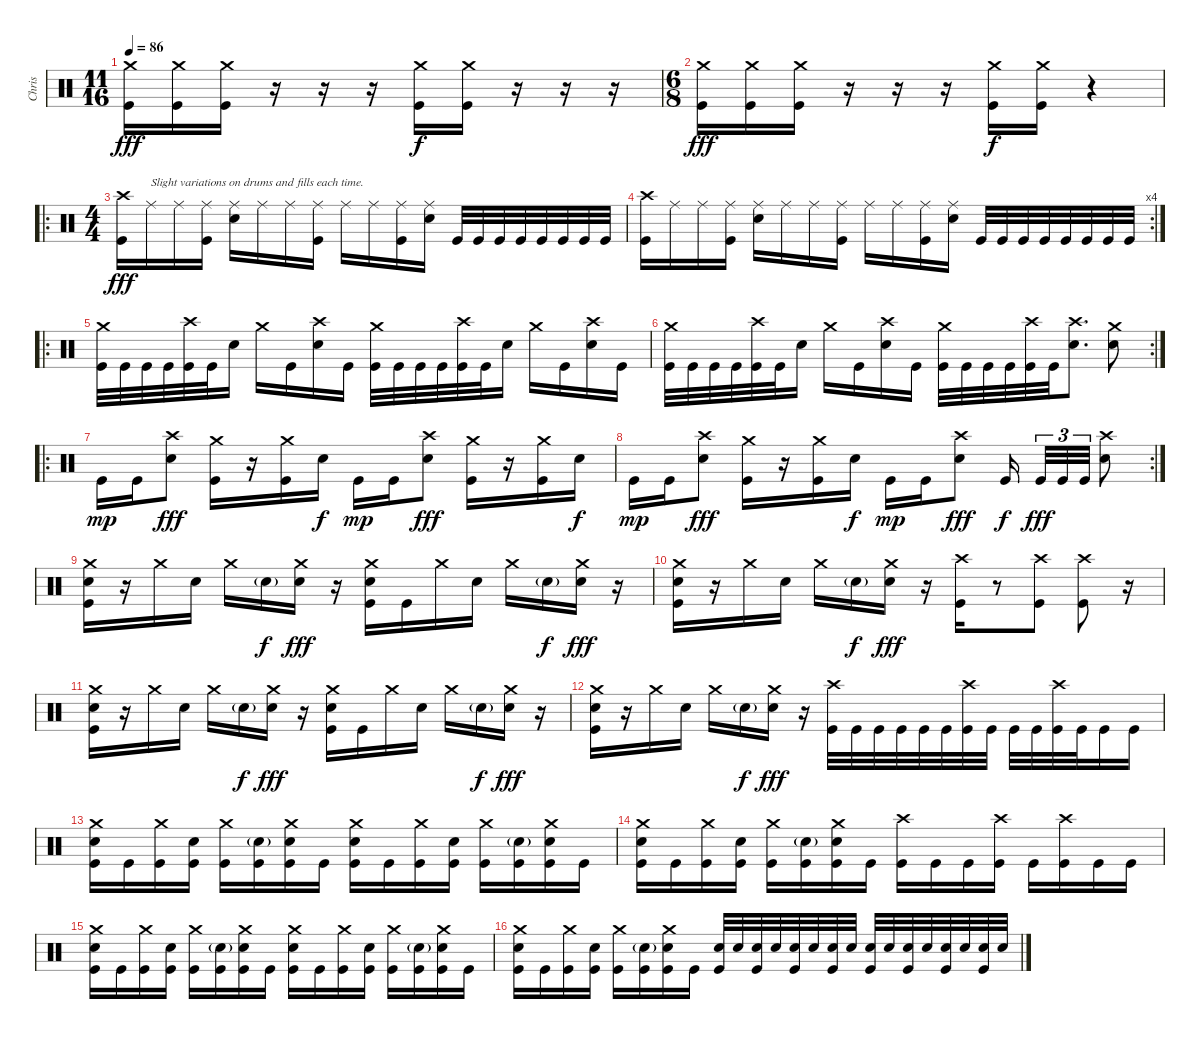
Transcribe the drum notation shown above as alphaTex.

\track ("Chris" "Chris") {instrument percussion}
\staff {score}
\articulation defaults
\ts (11 16)
\tempo 86
\clef neutral
\ks c
("Crash medium (hit)" "Kick (hit)").16{dy fff} ("Crash medium (hit)" "Kick (hit)").16 ("Crash medium (hit)" "Kick (hit)").16 r.16 r.16 r.16 ("Crash medium (hit)" "Kick (hit)").16{dy f} ("Crash medium (hit)" "Kick (hit)").16 r.16 r.16 r.16 |
\ts (6 8)
("Crash medium (hit)" "Kick (hit)").16{dy fff} ("Crash medium (hit)" "Kick (hit)").16 ("Crash medium (hit)" "Kick (hit)").16 r.16 r.16 r.16 ("Crash medium (hit)" "Kick (hit)").16{dy f} ("Crash medium (hit)" "Kick (hit)").16 r.4 |
\ro
\ts (4 4)
("Crash high (hit)" "Kick (hit)").16{dy fff} "Ride (middle)".16{txt "Slight variations on drums and fills each time."} "Ride (middle)".16 ("Ride (middle)" "Kick (hit)").16 ("Ride (middle)" "Snare (hit) 2").16 "Ride (middle)".16 "Ride (middle)".16 ("Ride (middle)" "Kick (hit)").16 "Ride (middle)".16 "Ride (middle)".16 ("Ride (middle)" "Kick (hit)").16 ("Ride (middle)" "Snare (hit) 2").16 "Kick (hit)".32 "Kick (hit)".32 "Kick (hit)".32 "Kick (hit)".32 "Kick (hit)".32 "Kick (hit)".32 "Kick (hit)".32 "Kick (hit)".32 |
\rc 4
("Crash high (hit)" "Kick (hit)").16 "Ride (middle)".16 "Ride (middle)".16 ("Ride (middle)" "Kick (hit)").16 ("Ride (middle)" "Snare (hit) 2").16 "Ride (middle)".16 "Ride (middle)".16 ("Ride (middle)" "Kick (hit)").16 "Ride (middle)".16 "Ride (middle)".16 ("Ride (middle)" "Kick (hit)").16 ("Ride (middle)" "Snare (hit) 2").16 "Kick (hit)".32 "Kick (hit)".32 "Kick (hit)".32 "Kick (hit)".32 "Kick (hit)".32 "Kick (hit)".32 "Kick (hit)".32 "Kick (hit)".32 |
\ro
("Crash medium (hit)" "Kick (hit)").32 "Kick (hit)".32 "Kick (hit)".32 "Kick (hit)".32 ("Crash high (hit)" "Kick (hit)").32 "Kick (hit)".32 "Snare (hit) 2".16 "Crash medium (hit)".16 "Kick (hit)".16 ("Crash high (hit)" "Snare (hit) 2").16 "Kick (hit)".16 ("Crash medium (hit)" "Kick (hit)").32 "Kick (hit)".32 "Kick (hit)".32 "Kick (hit)".32 ("Crash high (hit)" "Kick (hit)").32 "Kick (hit)".32 "Snare (hit) 2".16 "Crash medium (hit)".16 "Kick (hit)".16 ("Crash high (hit)" "Snare (hit) 2").16 "Kick (hit)".16 |
\rc 2
("Crash medium (hit)" "Kick (hit)").32 "Kick (hit)".32 "Kick (hit)".32 "Kick (hit)".32 ("Crash high (hit)" "Kick (hit)").32 "Kick (hit)".32 "Snare (hit) 2".16 "Crash medium (hit)".16 "Kick (hit)".16 ("Crash high (hit)" "Snare (hit) 2").16 "Kick (hit)".16 ("Crash medium (hit)" "Kick (hit)").32 "Kick (hit)".32 "Kick (hit)".32 "Kick (hit)".32 ("Crash high (hit)" "Kick (hit)").32 "Kick (hit)".32 ("Crash high (hit)" "Snare (hit) 2").8{d} ("Crash medium (hit)" "Snare (hit) 2").8 |
\ro "Kick (hit)".16{dy mp} "Kick (hit)".16
("Crash high (hit)" "Snare (hit) 2").8{dy fff} ("Crash medium (hit)" "Kick (hit)").16 r.16 ("Crash medium (hit)" "Kick (hit)").16 "Snare (hit) 2".16{dy f} "Kick (hit)".16{dy mp} "Kick (hit)".16 ("Crash high (hit)" "Snare (hit) 2").8{dy fff} ("Crash medium (hit)" "Kick (hit)").16 r.16 ("Crash medium (hit)" "Kick (hit)").16 "Snare (hit) 2".16{dy f} |
\rc 2 "Kick (hit)".16{dy mp} "Kick (hit)".16
("Crash high (hit)" "Snare (hit) 2").8{dy fff} ("Crash medium (hit)" "Kick (hit)").16 r.16 ("Crash medium (hit)" "Kick (hit)").16 "Snare (hit) 2".16{dy f} "Kick (hit)".16{dy mp} "Kick (hit)".16 ("Crash high (hit)" "Snare (hit) 2").8{dy fff} "Kick (hit)".16{dy f beam splitsecondary} "Kick (hit)".32{tu (3 2) dy fff} "Kick (hit)".32{tu (3 2)} "Kick (hit)".32{tu (3 2)} ("Crash high (hit)" "Snare (hit) 2").8 |
("Crash medium (hit)" "Snare (hit) 2" "Kick (hit)").16 r.16 "Crash medium (hit)".16 "Snare (hit) 2".16 "Crash medium (hit)".16 "Snare (hit) 2"{g}.16{dy f} ("Crash medium (hit)" "Snare (hit) 2").16{dy fff} r.16 ("Crash medium (hit)" "Snare (hit) 2" "Kick (hit)").16 "Kick (hit)".16 "Crash medium (hit)".16 "Snare (hit) 2".16 "Crash medium (hit)".16 "Snare (hit) 2"{g}.16{dy f} ("Crash medium (hit)" "Snare (hit) 2").16{dy fff} r.16 |
("Crash medium (hit)" "Snare (hit) 2" "Kick (hit)").16 r.16 "Crash medium (hit)".16 "Snare (hit) 2".16 "Crash medium (hit)".16 "Snare (hit) 2"{g}.16{dy f} ("Crash medium (hit)" "Snare (hit) 2").16{dy fff} r.16 ("Crash high (hit)" "Kick (hit)").16 r.8 ("Crash high (hit)" "Kick (hit)").8 ("Crash high (hit)" "Kick (hit)").8 r.16 |
("Crash medium (hit)" "Snare (hit) 2" "Kick (hit)").16 r.16 "Crash medium (hit)".16 "Snare (hit) 2".16 "Crash medium (hit)".16 "Snare (hit) 2"{g}.16{dy f} ("Crash medium (hit)" "Snare (hit) 2").16{dy fff} r.16 ("Crash medium (hit)" "Snare (hit) 2" "Kick (hit)").16 "Kick (hit)".16 "Crash medium (hit)".16 "Snare (hit) 2".16 "Crash medium (hit)".16 "Snare (hit) 2"{g}.16{dy f} ("Crash medium (hit)" "Snare (hit) 2").16{dy fff} r.16 |
("Crash medium (hit)" "Snare (hit) 2" "Kick (hit)").16 r.16 "Crash medium (hit)".16 "Snare (hit) 2".16 "Crash medium (hit)".16 "Snare (hit) 2"{g}.16{dy f} ("Crash medium (hit)" "Snare (hit) 2").16{dy fff} r.16 ("Crash high (hit)" "Kick (hit)").32 "Kick (hit)".32 "Kick (hit)".32 "Kick (hit)".32 "Kick (hit)".32 "Kick (hit)".32 ("Crash high (hit)" "Kick (hit)").32 "Kick (hit)".32 "Kick (hit)".32 "Kick (hit)".32 ("Crash high (hit)" "Kick (hit)").32 "Kick (hit)".32 "Kick (hit)".16 "Kick (hit)".16 |
("Crash medium (hit)" "Snare (hit) 2" "Kick (hit)").16 "Kick (hit)".16 ("Crash medium (hit)" "Kick (hit)").16 ("Snare (hit) 2" "Kick (hit)").16 ("Crash medium (hit)" "Kick (hit)").16 ("Snare (hit) 2"{g} "Kick (hit)").16 ("Crash medium (hit)" "Snare (hit) 2" "Kick (hit)").16 "Kick (hit)".16 ("Crash medium (hit)" "Snare (hit) 2" "Kick (hit)").16 "Kick (hit)".16 ("Crash medium (hit)" "Kick (hit)").16 ("Snare (hit) 2" "Kick (hit)").16 ("Crash medium (hit)" "Kick (hit)").16 ("Snare (hit) 2"{g} "Kick (hit)").16 ("Crash medium (hit)" "Snare (hit) 2" "Kick (hit)").16 "Kick (hit)".16 |
("Crash medium (hit)" "Snare (hit) 2" "Kick (hit)").16 "Kick (hit)".16 ("Crash medium (hit)" "Kick (hit)").16 ("Snare (hit) 2" "Kick (hit)").16 ("Crash medium (hit)" "Kick (hit)").16 ("Snare (hit) 2"{g} "Kick (hit)").16 ("Crash medium (hit)" "Snare (hit) 2" "Kick (hit)").16 "Kick (hit)".16 ("Crash high (hit)" "Kick (hit)").16 "Kick (hit)".16 "Kick (hit)".16 ("Crash high (hit)" "Kick (hit)").16 "Kick (hit)".16 ("Crash high (hit)" "Kick (hit)").16 "Kick (hit)".16 "Kick (hit)".16 |
("Crash medium (hit)" "Snare (hit) 2" "Kick (hit)").16 "Kick (hit)".16 ("Crash medium (hit)" "Kick (hit)").16 ("Snare (hit) 2" "Kick (hit)").16 ("Crash medium (hit)" "Kick (hit)").16 ("Snare (hit) 2"{g} "Kick (hit)").16 ("Crash medium (hit)" "Snare (hit) 2" "Kick (hit)").16 "Kick (hit)".16 ("Crash medium (hit)" "Snare (hit) 2" "Kick (hit)").16 "Kick (hit)".16 ("Crash medium (hit)" "Kick (hit)").16 ("Snare (hit) 2" "Kick (hit)").16 ("Crash medium (hit)" "Kick (hit)").16 ("Snare (hit) 2"{g} "Kick (hit)").16 ("Crash medium (hit)" "Snare (hit) 2" "Kick (hit)").16 "Kick (hit)".16 |
("Crash medium (hit)" "Snare (hit) 2" "Kick (hit)").16 "Kick (hit)".16 ("Crash medium (hit)" "Kick (hit)").16 ("Snare (hit) 2" "Kick (hit)").16 ("Crash medium (hit)" "Kick (hit)").16 ("Snare (hit) 2"{g} "Kick (hit)").16 ("Crash medium (hit)" "Snare (hit) 2" "Kick (hit)").16 "Kick (hit)".16 ("Snare (hit) 2" "Kick (hit)").32 "Snare (hit) 2".32 ("Snare (hit) 2" "Kick (hit)").32 "Snare (hit) 2".32 ("Snare (hit) 2" "Kick (hit)").32 "Snare (hit) 2".32 ("Snare (hit) 2" "Kick (hit)").32 "Snare (hit) 2".32 ("Snare (hit) 2" "Kick (hit)").32 "Snare (hit) 2".32 ("Snare (hit) 2" "Kick (hit)").32 "Snare (hit) 2".32 ("Snare (hit) 2" "Kick (hit)").32 "Snare (hit) 2".32 ("Snare (hit) 2" "Kick (hit)").32 "Snare (hit) 2".32
